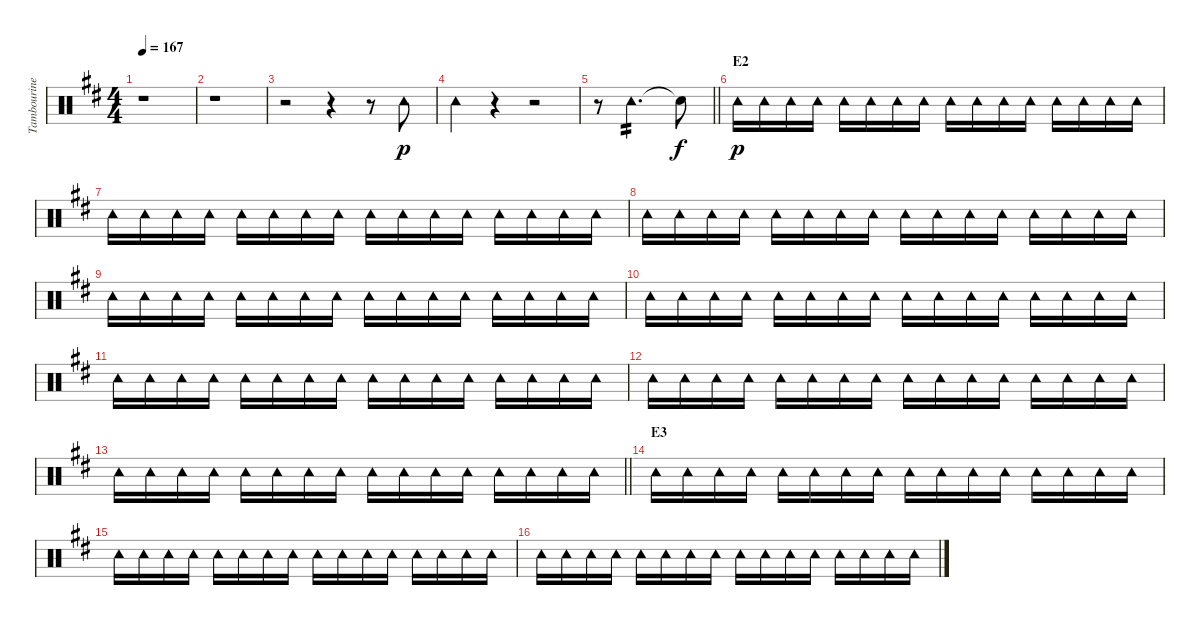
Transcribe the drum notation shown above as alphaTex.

\track ("Tambourine" "Tambourine") {instrument percussion}
\staff {score}
\articulation defaults
\ts (4 4)
\tempo 167
\clef neutral
\ks d
r.1{dy p} |
r.1 |
r.2 r.4 r.8 "Tambourine (hit)".8 |
"Tambourine (hit)".4 r.4 r.2 |
\barLineRight lightlight
r.8 "Tambourine (hit)".2{d tp 2} "Snare (hit)"{t}.8{dy f} |
\section ("" "E2")
"Tambourine (hit)".16{dy p} "Tambourine (hit)".16 "Tambourine (hit)".16 "Tambourine (hit)".16 "Tambourine (hit)".16 "Tambourine (hit)".16 "Tambourine (hit)".16 "Tambourine (hit)".16 "Tambourine (hit)".16 "Tambourine (hit)".16 "Tambourine (hit)".16 "Tambourine (hit)".16 "Tambourine (hit)".16 "Tambourine (hit)".16 "Tambourine (hit)".16 "Tambourine (hit)".16 |
"Tambourine (hit)".16 "Tambourine (hit)".16 "Tambourine (hit)".16 "Tambourine (hit)".16 "Tambourine (hit)".16 "Tambourine (hit)".16 "Tambourine (hit)".16 "Tambourine (hit)".16 "Tambourine (hit)".16 "Tambourine (hit)".16 "Tambourine (hit)".16 "Tambourine (hit)".16 "Tambourine (hit)".16 "Tambourine (hit)".16 "Tambourine (hit)".16 "Tambourine (hit)".16 |
"Tambourine (hit)".16 "Tambourine (hit)".16 "Tambourine (hit)".16 "Tambourine (hit)".16 "Tambourine (hit)".16 "Tambourine (hit)".16 "Tambourine (hit)".16 "Tambourine (hit)".16 "Tambourine (hit)".16 "Tambourine (hit)".16 "Tambourine (hit)".16 "Tambourine (hit)".16 "Tambourine (hit)".16 "Tambourine (hit)".16 "Tambourine (hit)".16 "Tambourine (hit)".16 |
"Tambourine (hit)".16 "Tambourine (hit)".16 "Tambourine (hit)".16 "Tambourine (hit)".16 "Tambourine (hit)".16 "Tambourine (hit)".16 "Tambourine (hit)".16 "Tambourine (hit)".16 "Tambourine (hit)".16 "Tambourine (hit)".16 "Tambourine (hit)".16 "Tambourine (hit)".16 "Tambourine (hit)".16 "Tambourine (hit)".16 "Tambourine (hit)".16 "Tambourine (hit)".16 |
"Tambourine (hit)".16 "Tambourine (hit)".16 "Tambourine (hit)".16 "Tambourine (hit)".16 "Tambourine (hit)".16 "Tambourine (hit)".16 "Tambourine (hit)".16 "Tambourine (hit)".16 "Tambourine (hit)".16 "Tambourine (hit)".16 "Tambourine (hit)".16 "Tambourine (hit)".16 "Tambourine (hit)".16 "Tambourine (hit)".16 "Tambourine (hit)".16 "Tambourine (hit)".16 |
"Tambourine (hit)".16 "Tambourine (hit)".16 "Tambourine (hit)".16 "Tambourine (hit)".16 "Tambourine (hit)".16 "Tambourine (hit)".16 "Tambourine (hit)".16 "Tambourine (hit)".16 "Tambourine (hit)".16 "Tambourine (hit)".16 "Tambourine (hit)".16 "Tambourine (hit)".16 "Tambourine (hit)".16 "Tambourine (hit)".16 "Tambourine (hit)".16 "Tambourine (hit)".16 |
"Tambourine (hit)".16 "Tambourine (hit)".16 "Tambourine (hit)".16 "Tambourine (hit)".16 "Tambourine (hit)".16 "Tambourine (hit)".16 "Tambourine (hit)".16 "Tambourine (hit)".16 "Tambourine (hit)".16 "Tambourine (hit)".16 "Tambourine (hit)".16 "Tambourine (hit)".16 "Tambourine (hit)".16 "Tambourine (hit)".16 "Tambourine (hit)".16 "Tambourine (hit)".16 |
\barLineRight lightlight "Tambourine (hit)".16 "Tambourine (hit)".16 "Tambourine (hit)".16 "Tambourine (hit)".16 "Tambourine (hit)".16 "Tambourine (hit)".16 "Tambourine (hit)".16 "Tambourine (hit)".16 "Tambourine (hit)".16 "Tambourine (hit)".16 "Tambourine (hit)".16 "Tambourine (hit)".16 "Tambourine (hit)".16 "Tambourine (hit)".16 "Tambourine (hit)".16 "Tambourine (hit)".16
|
\section ("" "E3")
"Tambourine (hit)".16 "Tambourine (hit)".16 "Tambourine (hit)".16 "Tambourine (hit)".16 "Tambourine (hit)".16 "Tambourine (hit)".16 "Tambourine (hit)".16 "Tambourine (hit)".16 "Tambourine (hit)".16 "Tambourine (hit)".16 "Tambourine (hit)".16 "Tambourine (hit)".16 "Tambourine (hit)".16 "Tambourine (hit)".16 "Tambourine (hit)".16 "Tambourine (hit)".16 |
"Tambourine (hit)".16 "Tambourine (hit)".16 "Tambourine (hit)".16 "Tambourine (hit)".16 "Tambourine (hit)".16 "Tambourine (hit)".16 "Tambourine (hit)".16 "Tambourine (hit)".16 "Tambourine (hit)".16 "Tambourine (hit)".16 "Tambourine (hit)".16 "Tambourine (hit)".16 "Tambourine (hit)".16 "Tambourine (hit)".16 "Tambourine (hit)".16 "Tambourine (hit)".16 |
"Tambourine (hit)".16 "Tambourine (hit)".16 "Tambourine (hit)".16 "Tambourine (hit)".16 "Tambourine (hit)".16 "Tambourine (hit)".16 "Tambourine (hit)".16 "Tambourine (hit)".16 "Tambourine (hit)".16 "Tambourine (hit)".16 "Tambourine (hit)".16 "Tambourine (hit)".16 "Tambourine (hit)".16 "Tambourine (hit)".16 "Tambourine (hit)".16 "Tambourine (hit)".16
